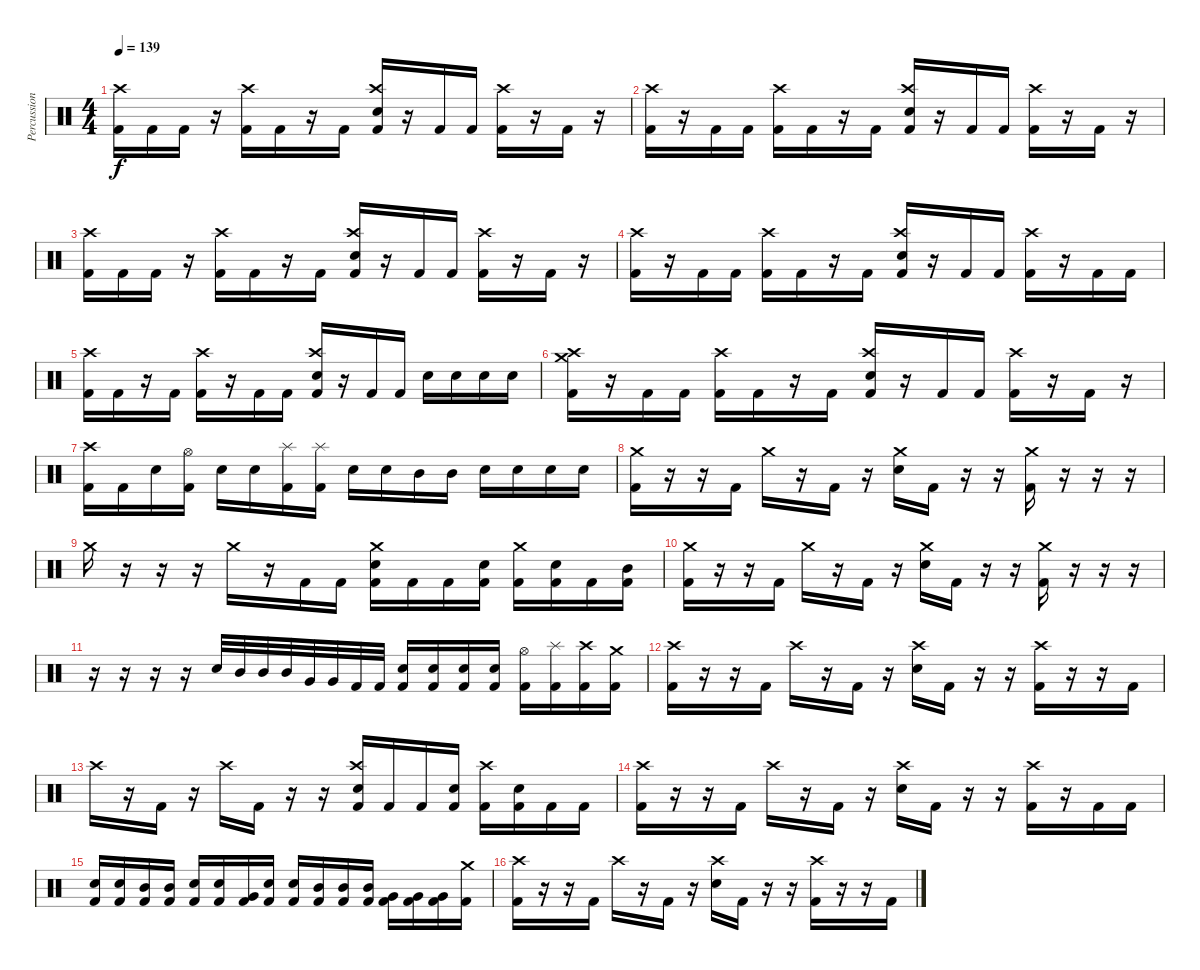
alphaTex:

\track ("Percussion" "Percussion") {instrument percussion}
\staff {score}
\articulation defaults
\ts (4 4)
\tempo 139
\clef neutral
\ks c
("Kick (hit) 2" "Crash high (hit)").16{dy f} "Kick (hit) 2".16 "Kick (hit) 2".16 r.16 ("Kick (hit) 2" "Crash high (hit)").16 "Kick (hit) 2".16 r.16 "Kick (hit) 2".16 ("Kick (hit) 2" "Electric Snare (hit)" "Crash high (hit)").16 r.16 "Kick (hit) 2".16 "Kick (hit) 2".16 ("Kick (hit) 2" "Crash high (hit)").16 r.16 "Kick (hit) 2".16 r.16 |
("Kick (hit) 2" "Crash high (hit)").16 r.16 "Kick (hit) 2".16 "Kick (hit) 2".16 ("Kick (hit) 2" "Crash high (hit)").16 "Kick (hit) 2".16 r.16 "Kick (hit) 2".16 ("Kick (hit) 2" "Electric Snare (hit)" "Crash high (hit)").16 r.16 "Kick (hit) 2".16 "Kick (hit) 2".16 ("Kick (hit) 2" "Crash high (hit)").16 r.16 "Kick (hit) 2".16 r.16 |
("Kick (hit) 2" "Crash high (hit)").16 "Kick (hit) 2".16 "Kick (hit) 2".16 r.16 ("Kick (hit) 2" "Crash high (hit)").16 "Kick (hit) 2".16 r.16 "Kick (hit) 2".16 ("Kick (hit) 2" "Electric Snare (hit)" "Crash high (hit)").16 r.16 "Kick (hit) 2".16 "Kick (hit) 2".16 ("Kick (hit) 2" "Crash high (hit)").16 r.16 "Kick (hit) 2".16 r.16 |
("Kick (hit) 2" "Crash high (hit)").16 r.16 "Kick (hit) 2".16 "Kick (hit) 2".16 ("Kick (hit) 2" "Crash high (hit)").16 "Kick (hit) 2".16 r.16 "Kick (hit) 2".16 ("Kick (hit) 2" "Electric Snare (hit)" "Crash high (hit)").16 r.16 "Kick (hit) 2".16 "Kick (hit) 2".16 ("Kick (hit) 2" "Crash high (hit)").16 r.16 "Kick (hit) 2".16 "Kick (hit) 2".16 |
("Kick (hit) 2" "Crash high (hit)").16 "Kick (hit) 2".16 r.16 "Kick (hit) 2".16 ("Kick (hit) 2" "Crash high (hit)").16 r.16 "Kick (hit) 2".16 "Kick (hit) 2".16 ("Kick (hit) 2" "Electric Snare (hit)" "Crash high (hit)").16 r.16 "Kick (hit) 2".16 "Kick (hit) 2".16 "Electric Snare (hit)".16 "Electric Snare (hit)".16 "Electric Snare (hit)".16 "Electric Snare (hit)".16 |
("Kick (hit) 2" "Crash medium (hit)" "Crash high (hit)").16 r.16 "Kick (hit) 2".16 "Kick (hit) 2".16 ("Kick (hit) 2" "Crash high (hit)").16 "Kick (hit) 2".16 r.16 "Kick (hit) 2".16 ("Kick (hit) 2" "Electric Snare (hit)" "Crash high (hit)").16 r.16 "Kick (hit) 2".16 "Kick (hit) 2".16 ("Kick (hit) 2" "Crash high (hit)").16 r.16 "Kick (hit) 2".16 r.16 |
("Kick (hit) 2" "Crash high (hit)").16 "Kick (hit) 2".16 "Electric Snare (hit)".16 ("Kick (hit) 2" "Hi-Hat (open)").16 "Electric Snare (hit)".16 "Electric Snare (hit)".16 ("Kick (hit) 2" "Splash (hit)").16 ("Kick (hit) 2" "Splash (hit)").16 "Electric Snare (hit)".16 "Electric Snare (hit)".16 "Mid Tom (hit)".16 "Mid Tom (hit)".16 "Electric Snare (hit)".16 "Electric Snare (hit)".16 "Electric Snare (hit)".16 "Electric Snare (hit)".16 |
("Kick (hit) 2" "Crash medium (hit)").16 r.16 r.16 "Kick (hit) 2".16 "Crash medium (hit)".16 r.16 "Kick (hit) 2".16 r.16 ("Electric Snare (hit)" "Crash medium (hit)").16 "Kick (hit) 2".16 r.16 r.16 ("Kick (hit) 2" "Crash medium (hit)").16 r.16 r.16 r.16 |
"Crash medium (hit)".16 r.16 r.16 r.16 "Crash medium (hit)".16 r.16 "Kick (hit) 2".16 "Kick (hit) 2".16 ("Kick (hit) 2" "Electric Snare (hit)" "Crash medium (hit)").16 "Kick (hit) 2".16 "Kick (hit) 2".16 ("Kick (hit) 2" "Electric Snare (hit)").16 ("Kick (hit) 2" "Crash medium (hit)").16 ("Kick (hit) 2" "Electric Snare (hit)").16 "Kick (hit) 2".16 ("Kick (hit) 2" "Mid Tom (hit)").16 |
("Kick (hit) 2" "Crash medium (hit)").16 r.16 r.16 "Kick (hit) 2".16 "Crash medium (hit)".16 r.16 "Kick (hit) 2".16 r.16 ("Electric Snare (hit)" "Crash medium (hit)").16 "Kick (hit) 2".16 r.16 r.16 ("Kick (hit) 2" "Crash medium (hit)").16 r.16 r.16 r.16 |
r.16 r.16 r.16 r.16 "Electric Snare (hit)".32 "Mid Tom (hit)".32 "Mid Tom (hit)".32 "Mid Tom (hit)".32 "Very Low Tom (hit)".32 "Very Low Tom (hit)".32 "Kick (hit) 2".32 "Kick (hit) 2".32 ("Kick (hit) 2" "Electric Snare (hit)").16 ("Kick (hit) 2" "Electric Snare (hit)").16 ("Kick (hit) 2" "Electric Snare (hit)").16 ("Kick (hit) 2" "Electric Snare (hit)").16 ("Kick (hit) 2" "Hi-Hat (open)").16 ("Kick (hit) 2" "Splash (hit)").16 ("Kick (hit) 2" "Crash high (hit)").16 ("Kick (hit) 2" "Crash medium (hit)").16 |
("Kick (hit) 2" "Crash high (hit)").16 r.16 r.16 "Kick (hit) 2".16 "Crash high (hit)".16 r.16 "Kick (hit) 2".16 r.16 ("Electric Snare (hit)" "Crash high (hit)").16 "Kick (hit) 2".16 r.16 r.16 ("Kick (hit) 2" "Crash high (hit)").16 r.16 r.16 "Kick (hit) 2".16 |
"Crash high (hit)".16 r.16 "Kick (hit) 2".16 r.16 "Crash high (hit)".16 "Kick (hit) 2".16 r.16 r.16 ("Kick (hit) 2" "Electric Snare (hit)" "Crash high (hit)").16 "Kick (hit) 2".16 "Kick (hit) 2".16 ("Kick (hit) 2" "Electric Snare (hit)").16 ("Kick (hit) 2" "Crash high (hit)").16 ("Kick (hit) 2" "Electric Snare (hit)").16 "Kick (hit) 2".16 "Kick (hit) 2".16 |
("Kick (hit) 2" "Crash high (hit)").16 r.16 r.16 "Kick (hit) 2".16 "Crash high (hit)".16 r.16 "Kick (hit) 2".16 r.16 ("Electric Snare (hit)" "Crash high (hit)").16 "Kick (hit) 2".16 r.16 r.16 ("Kick (hit) 2" "Crash high (hit)").16 r.16 "Kick (hit) 2".16 "Kick (hit) 2".16 |
("Kick (hit) 2" "Electric Snare (hit)").16 ("Kick (hit) 2" "Electric Snare (hit)").16 ("Kick (hit) 2" "Mid Tom (hit)").16 ("Kick (hit) 2" "Mid Tom (hit)").16 ("Kick (hit) 2" "Electric Snare (hit)").16 ("Kick (hit) 2" "Electric Snare (hit)").16 ("Kick (hit) 2" "Very Low Tom (hit)").16 ("Kick (hit) 2" "Electric Snare (hit)").16 ("Kick (hit) 2" "Electric Snare (hit)").16 ("Kick (hit) 2" "Mid Tom (hit)").16 ("Kick (hit) 2" "Mid Tom (hit)").16 ("Kick (hit) 2" "Mid Tom (hit)").16 ("Kick (hit) 2" "Very Low Tom (hit)").16 ("Kick (hit) 2" "Very Low Tom (hit)").16 ("Kick (hit) 2" "Very Low Tom (hit)").16 ("Kick (hit) 2" "Crash medium (hit)").16 |
("Kick (hit) 2" "Crash high (hit)").16 r.16 r.16 "Kick (hit) 2".16 "Crash high (hit)".16 r.16 "Kick (hit) 2".16 r.16 ("Electric Snare (hit)" "Crash high (hit)").16 "Kick (hit) 2".16 r.16 r.16 ("Kick (hit) 2" "Crash high (hit)").16 r.16 r.16 "Kick (hit) 2".16
